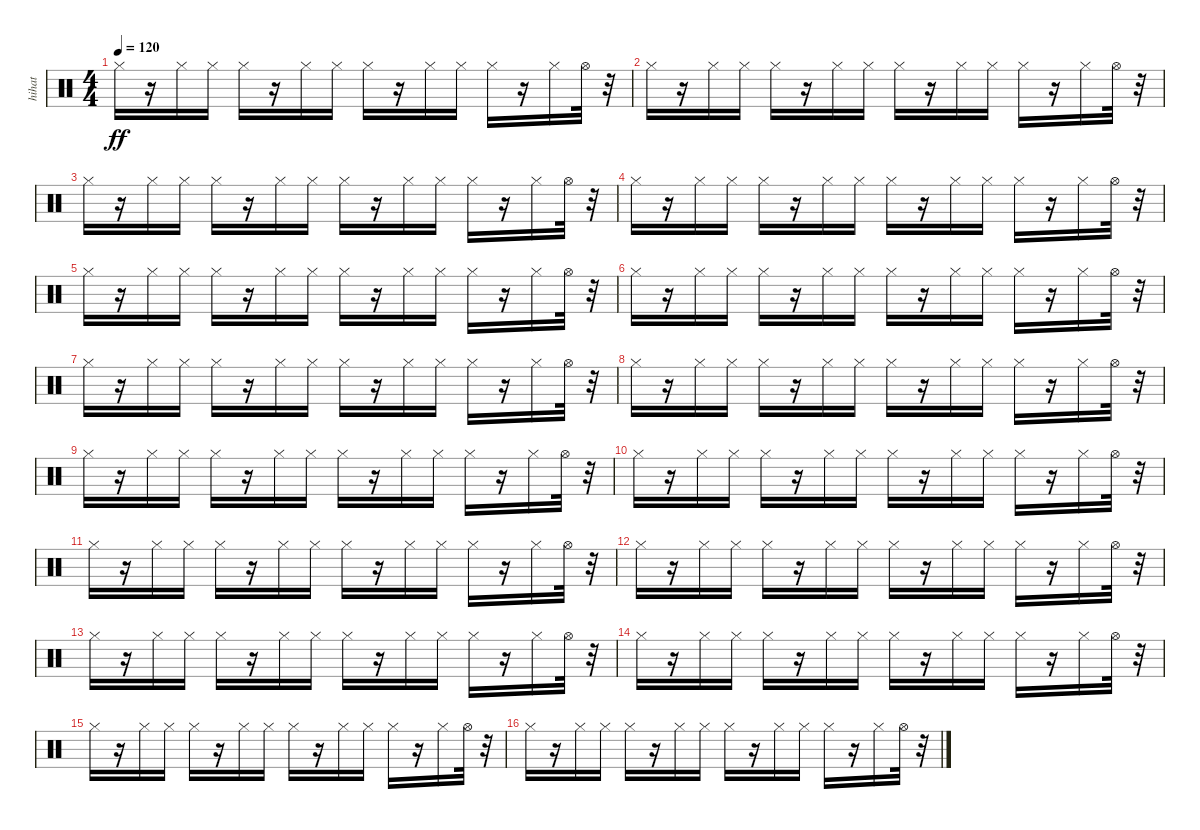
\track ("hihat" "hihat") {instrument percussion}
\staff {score}
\articulation defaults
\ts (4 4)
\tempo 120
\clef neutral
\ks c "Hi-Hat (closed)".16{dy ff}
r.16 "Hi-Hat (closed)".16 "Hi-Hat (closed)".16 "Hi-Hat (closed)".16 r.16 "Hi-Hat (closed)".16 "Hi-Hat (closed)".16 "Hi-Hat (closed)".16 r.16 "Hi-Hat (closed)".16 "Hi-Hat (closed)".16 "Hi-Hat (closed)".16 r.16 "Hi-Hat (closed)".16 "Hi-Hat (open)".32 r.32 |
"Hi-Hat (closed)".16 r.16 "Hi-Hat (closed)".16 "Hi-Hat (closed)".16 "Hi-Hat (closed)".16 r.16 "Hi-Hat (closed)".16 "Hi-Hat (closed)".16 "Hi-Hat (closed)".16 r.16 "Hi-Hat (closed)".16 "Hi-Hat (closed)".16 "Hi-Hat (closed)".16 r.16 "Hi-Hat (closed)".16 "Hi-Hat (open)".32 r.32 |
"Hi-Hat (closed)".16 r.16 "Hi-Hat (closed)".16 "Hi-Hat (closed)".16 "Hi-Hat (closed)".16 r.16 "Hi-Hat (closed)".16 "Hi-Hat (closed)".16 "Hi-Hat (closed)".16 r.16 "Hi-Hat (closed)".16 "Hi-Hat (closed)".16 "Hi-Hat (closed)".16 r.16 "Hi-Hat (closed)".16 "Hi-Hat (open)".32 r.32 |
"Hi-Hat (closed)".16 r.16 "Hi-Hat (closed)".16 "Hi-Hat (closed)".16 "Hi-Hat (closed)".16 r.16 "Hi-Hat (closed)".16 "Hi-Hat (closed)".16 "Hi-Hat (closed)".16 r.16 "Hi-Hat (closed)".16 "Hi-Hat (closed)".16 "Hi-Hat (closed)".16 r.16 "Hi-Hat (closed)".16 "Hi-Hat (open)".32 r.32 |
"Hi-Hat (closed)".16 r.16 "Hi-Hat (closed)".16 "Hi-Hat (closed)".16 "Hi-Hat (closed)".16 r.16 "Hi-Hat (closed)".16 "Hi-Hat (closed)".16 "Hi-Hat (closed)".16 r.16 "Hi-Hat (closed)".16 "Hi-Hat (closed)".16 "Hi-Hat (closed)".16 r.16 "Hi-Hat (closed)".16 "Hi-Hat (open)".32 r.32 |
"Hi-Hat (closed)".16 r.16 "Hi-Hat (closed)".16 "Hi-Hat (closed)".16 "Hi-Hat (closed)".16 r.16 "Hi-Hat (closed)".16 "Hi-Hat (closed)".16 "Hi-Hat (closed)".16 r.16 "Hi-Hat (closed)".16 "Hi-Hat (closed)".16 "Hi-Hat (closed)".16 r.16 "Hi-Hat (closed)".16 "Hi-Hat (open)".32 r.32 |
"Hi-Hat (closed)".16 r.16 "Hi-Hat (closed)".16 "Hi-Hat (closed)".16 "Hi-Hat (closed)".16 r.16 "Hi-Hat (closed)".16 "Hi-Hat (closed)".16 "Hi-Hat (closed)".16 r.16 "Hi-Hat (closed)".16 "Hi-Hat (closed)".16 "Hi-Hat (closed)".16 r.16 "Hi-Hat (closed)".16 "Hi-Hat (open)".32 r.32 |
"Hi-Hat (closed)".16 r.16 "Hi-Hat (closed)".16 "Hi-Hat (closed)".16 "Hi-Hat (closed)".16 r.16 "Hi-Hat (closed)".16 "Hi-Hat (closed)".16 "Hi-Hat (closed)".16 r.16 "Hi-Hat (closed)".16 "Hi-Hat (closed)".16 "Hi-Hat (closed)".16 r.16 "Hi-Hat (closed)".16 "Hi-Hat (open)".32 r.32 |
"Hi-Hat (closed)".16 r.16 "Hi-Hat (closed)".16 "Hi-Hat (closed)".16 "Hi-Hat (closed)".16 r.16 "Hi-Hat (closed)".16 "Hi-Hat (closed)".16 "Hi-Hat (closed)".16 r.16 "Hi-Hat (closed)".16 "Hi-Hat (closed)".16 "Hi-Hat (closed)".16 r.16 "Hi-Hat (closed)".16 "Hi-Hat (open)".32 r.32 |
"Hi-Hat (closed)".16 r.16 "Hi-Hat (closed)".16 "Hi-Hat (closed)".16 "Hi-Hat (closed)".16 r.16 "Hi-Hat (closed)".16 "Hi-Hat (closed)".16 "Hi-Hat (closed)".16 r.16 "Hi-Hat (closed)".16 "Hi-Hat (closed)".16 "Hi-Hat (closed)".16 r.16 "Hi-Hat (closed)".16 "Hi-Hat (open)".32 r.32 |
"Hi-Hat (closed)".16 r.16 "Hi-Hat (closed)".16 "Hi-Hat (closed)".16 "Hi-Hat (closed)".16 r.16 "Hi-Hat (closed)".16 "Hi-Hat (closed)".16 "Hi-Hat (closed)".16 r.16 "Hi-Hat (closed)".16 "Hi-Hat (closed)".16 "Hi-Hat (closed)".16 r.16 "Hi-Hat (closed)".16 "Hi-Hat (open)".32 r.32 |
"Hi-Hat (closed)".16 r.16 "Hi-Hat (closed)".16 "Hi-Hat (closed)".16 "Hi-Hat (closed)".16 r.16 "Hi-Hat (closed)".16 "Hi-Hat (closed)".16 "Hi-Hat (closed)".16 r.16 "Hi-Hat (closed)".16 "Hi-Hat (closed)".16 "Hi-Hat (closed)".16 r.16 "Hi-Hat (closed)".16 "Hi-Hat (open)".32 r.32 |
"Hi-Hat (closed)".16 r.16 "Hi-Hat (closed)".16 "Hi-Hat (closed)".16 "Hi-Hat (closed)".16 r.16 "Hi-Hat (closed)".16 "Hi-Hat (closed)".16 "Hi-Hat (closed)".16 r.16 "Hi-Hat (closed)".16 "Hi-Hat (closed)".16 "Hi-Hat (closed)".16 r.16 "Hi-Hat (closed)".16 "Hi-Hat (open)".32 r.32 |
"Hi-Hat (closed)".16 r.16 "Hi-Hat (closed)".16 "Hi-Hat (closed)".16 "Hi-Hat (closed)".16 r.16 "Hi-Hat (closed)".16 "Hi-Hat (closed)".16 "Hi-Hat (closed)".16 r.16 "Hi-Hat (closed)".16 "Hi-Hat (closed)".16 "Hi-Hat (closed)".16 r.16 "Hi-Hat (closed)".16 "Hi-Hat (open)".32 r.32 |
"Hi-Hat (closed)".16 r.16 "Hi-Hat (closed)".16 "Hi-Hat (closed)".16 "Hi-Hat (closed)".16 r.16 "Hi-Hat (closed)".16 "Hi-Hat (closed)".16 "Hi-Hat (closed)".16 r.16 "Hi-Hat (closed)".16 "Hi-Hat (closed)".16 "Hi-Hat (closed)".16 r.16 "Hi-Hat (closed)".16 "Hi-Hat (open)".32 r.32 |
"Hi-Hat (closed)".16 r.16 "Hi-Hat (closed)".16 "Hi-Hat (closed)".16 "Hi-Hat (closed)".16 r.16 "Hi-Hat (closed)".16 "Hi-Hat (closed)".16 "Hi-Hat (closed)".16 r.16 "Hi-Hat (closed)".16 "Hi-Hat (closed)".16 "Hi-Hat (closed)".16 r.16 "Hi-Hat (closed)".16 "Hi-Hat (open)".32 r.32
